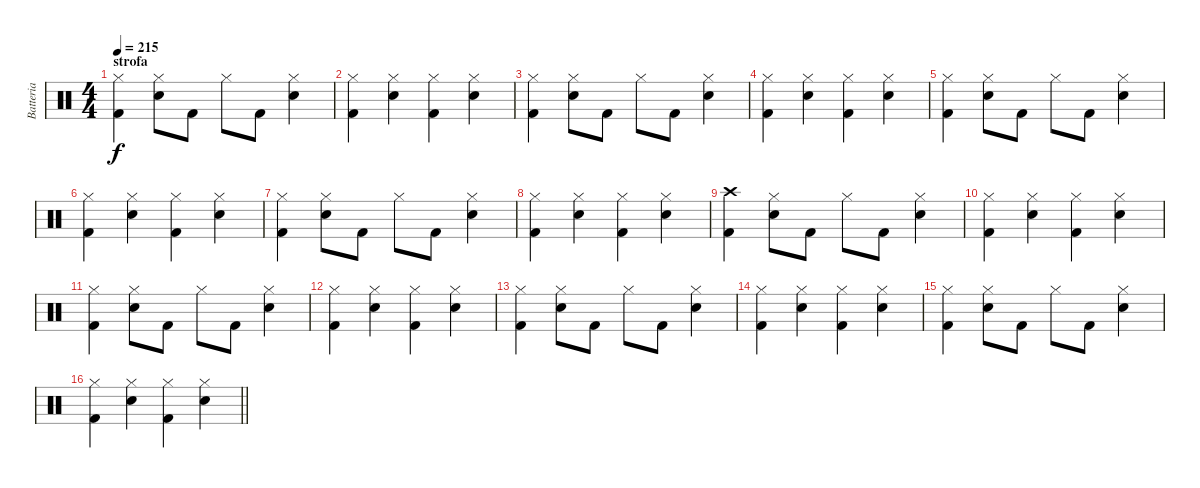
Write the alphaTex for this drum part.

\track ("Batteria" "Batteria") {instrument percussion}
\staff {score}
\articulation defaults
\ts (4 4)
\section ("" "strofa")
\tempo 215
\clef neutral
\ks c
("Hi-Hat (closed)" "Kick (hit) 2").4{dy f} ("Hi-Hat (closed)" "Electric Snare (hit)").8 "Kick (hit) 2".8 "Hi-Hat (closed)".8 "Kick (hit) 2".8 ("Hi-Hat (closed)" "Electric Snare (hit)").4 |
("Hi-Hat (closed)" "Kick (hit) 2").4 ("Hi-Hat (closed)" "Electric Snare (hit)").4 ("Hi-Hat (closed)" "Kick (hit) 2").4 ("Hi-Hat (closed)" "Electric Snare (hit)").4 |
("Hi-Hat (closed)" "Kick (hit) 2").4 ("Hi-Hat (closed)" "Electric Snare (hit)").8 "Kick (hit) 2".8 "Hi-Hat (closed)".8 "Kick (hit) 2".8 ("Hi-Hat (closed)" "Electric Snare (hit)").4 |
("Hi-Hat (closed)" "Kick (hit) 2").4 ("Hi-Hat (closed)" "Electric Snare (hit)").4 ("Hi-Hat (closed)" "Kick (hit) 2").4 ("Hi-Hat (closed)" "Electric Snare (hit)").4 |
("Hi-Hat (closed)" "Kick (hit) 2").4 ("Hi-Hat (closed)" "Electric Snare (hit)").8 "Kick (hit) 2".8 "Hi-Hat (closed)".8 "Kick (hit) 2".8 ("Hi-Hat (closed)" "Electric Snare (hit)").4 |
("Hi-Hat (closed)" "Kick (hit) 2").4 ("Hi-Hat (closed)" "Electric Snare (hit)").4 ("Hi-Hat (closed)" "Kick (hit) 2").4 ("Hi-Hat (closed)" "Electric Snare (hit)").4 |
("Hi-Hat (closed)" "Kick (hit) 2").4 ("Hi-Hat (closed)" "Electric Snare (hit)").8 "Kick (hit) 2".8 "Hi-Hat (closed)".8 "Kick (hit) 2".8 ("Hi-Hat (closed)" "Electric Snare (hit)").4 |
("Hi-Hat (closed)" "Kick (hit) 2").4 ("Hi-Hat (closed)" "Electric Snare (hit)").4 ("Hi-Hat (closed)" "Kick (hit) 2").4 ("Hi-Hat (closed)" "Electric Snare (hit)").4 |
("Crash high (hit)" "Kick (hit) 2").4 ("Hi-Hat (closed)" "Electric Snare (hit)").8 "Kick (hit) 2".8 "Hi-Hat (closed)".8 "Kick (hit) 2".8 ("Hi-Hat (closed)" "Electric Snare (hit)").4 |
("Hi-Hat (closed)" "Kick (hit) 2").4 ("Hi-Hat (closed)" "Electric Snare (hit)").4 ("Hi-Hat (closed)" "Kick (hit) 2").4 ("Hi-Hat (closed)" "Electric Snare (hit)").4 |
("Hi-Hat (closed)" "Kick (hit) 2").4 ("Hi-Hat (closed)" "Electric Snare (hit)").8 "Kick (hit) 2".8 "Hi-Hat (closed)".8 "Kick (hit) 2".8 ("Hi-Hat (closed)" "Electric Snare (hit)").4 |
("Hi-Hat (closed)" "Kick (hit) 2").4 ("Hi-Hat (closed)" "Electric Snare (hit)").4 ("Hi-Hat (closed)" "Kick (hit) 2").4 ("Hi-Hat (closed)" "Electric Snare (hit)").4 |
("Hi-Hat (closed)" "Kick (hit) 2").4 ("Hi-Hat (closed)" "Electric Snare (hit)").8 "Kick (hit) 2".8 "Hi-Hat (closed)".8 "Kick (hit) 2".8 ("Hi-Hat (closed)" "Electric Snare (hit)").4 |
("Hi-Hat (closed)" "Kick (hit) 2").4 ("Hi-Hat (closed)" "Electric Snare (hit)").4 ("Hi-Hat (closed)" "Kick (hit) 2").4 ("Hi-Hat (closed)" "Electric Snare (hit)").4 |
("Hi-Hat (closed)" "Kick (hit) 2").4 ("Hi-Hat (closed)" "Electric Snare (hit)").8 "Kick (hit) 2".8 "Hi-Hat (closed)".8 "Kick (hit) 2".8 ("Hi-Hat (closed)" "Electric Snare (hit)").4 |
\barLineRight lightlight
("Hi-Hat (closed)" "Kick (hit) 2").4 ("Hi-Hat (closed)" "Electric Snare (hit)").4 ("Hi-Hat (closed)" "Kick (hit) 2").4 ("Hi-Hat (closed)" "Electric Snare (hit)").4
